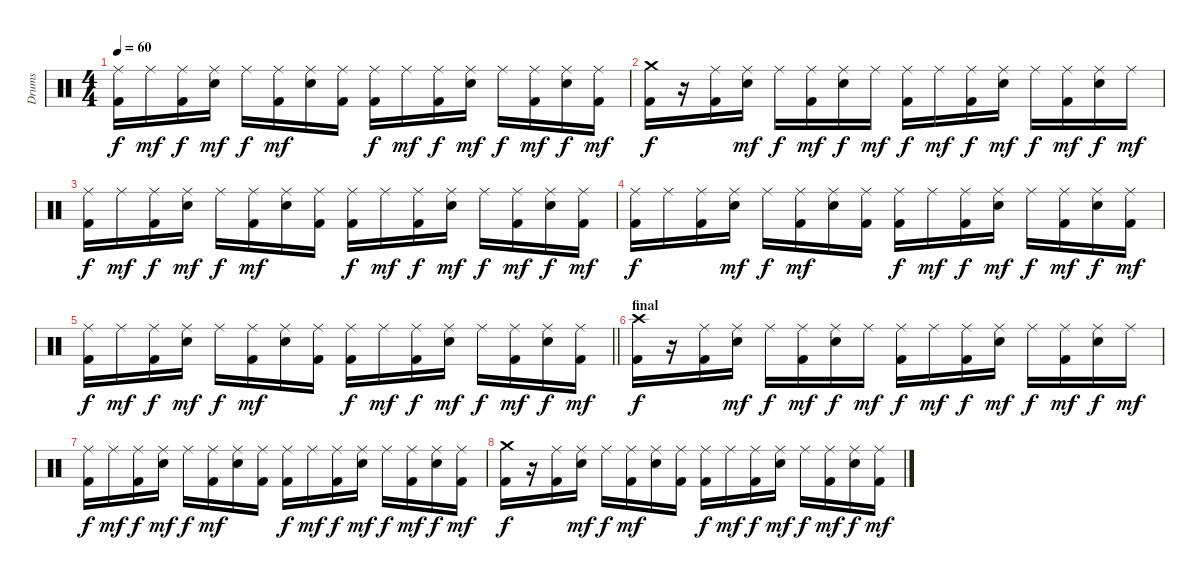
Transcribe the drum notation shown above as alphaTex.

\track ("Drums" "Drums") {instrument percussion}
\staff {score}
\articulation defaults
\ts (4 4)
\tempo 60
\clef neutral
\ks c
("Ride (middle)" "Kick (hit) 2").16{dy f} "Ride (middle)".16{dy mf} ("Ride (middle)" "Kick (hit) 2").16{dy f} ("Ride (middle)" "Snare (hit) 2").16{dy mf} "Ride (middle)".16{dy f} ("Ride (middle)" "Kick (hit) 2").16{dy mf} ("Ride (middle)" "Snare (hit) 2").16 ("Ride (middle)" "Kick (hit) 2").16 ("Ride (middle)" "Kick (hit) 2").16{dy f} "Ride (middle)".16{dy mf} ("Ride (middle)" "Kick (hit) 2").16{dy f} ("Ride (middle)" "Snare (hit) 2").16{dy mf} "Ride (middle)".16{dy f} ("Ride (middle)" "Kick (hit) 2").16{dy mf} ("Ride (middle)" "Snare (hit) 2").16{dy f} ("Ride (middle)" "Kick (hit) 2").16{dy mf} |
("Crash medium (hit)" "Kick (hit) 2").16{dy f} r.16 ("Ride (middle)" "Kick (hit) 2").16 ("Ride (middle)" "Snare (hit) 2").16{dy mf} "Ride (middle)".16{dy f} ("Ride (middle)" "Kick (hit) 2").16{dy mf} ("Ride (middle)" "Snare (hit) 2").16{dy f} "Ride (middle)".16{dy mf} ("Ride (middle)" "Kick (hit) 2").16{dy f} "Ride (middle)".16{dy mf} ("Ride (middle)" "Kick (hit) 2").16{dy f} ("Ride (middle)" "Snare (hit) 2").16{dy mf} "Ride (middle)".16{dy f} ("Ride (middle)" "Kick (hit) 2").16{dy mf} ("Ride (middle)" "Snare (hit) 2").16{dy f} "Ride (middle)".16{dy mf} |
("Ride (middle)" "Kick (hit) 2").16{dy f} "Ride (middle)".16{dy mf} ("Ride (middle)" "Kick (hit) 2").16{dy f} ("Ride (middle)" "Snare (hit) 2").16{dy mf} "Ride (middle)".16{dy f} ("Ride (middle)" "Kick (hit) 2").16{dy mf} ("Ride (middle)" "Snare (hit) 2").16 ("Ride (middle)" "Kick (hit) 2").16 ("Ride (middle)" "Kick (hit) 2").16{dy f} "Ride (middle)".16{dy mf} ("Ride (middle)" "Kick (hit) 2").16{dy f} ("Ride (middle)" "Snare (hit) 2").16{dy mf} "Ride (middle)".16{dy f} ("Ride (middle)" "Kick (hit) 2").16{dy mf} ("Ride (middle)" "Snare (hit) 2").16{dy f} ("Ride (middle)" "Kick (hit) 2").16{dy mf} |
("Ride (middle)" "Kick (hit) 2").16{dy f} "Ride (middle)".16 ("Ride (middle)" "Kick (hit) 2").16 ("Ride (middle)" "Snare (hit) 2").16{dy mf} "Ride (middle)".16{dy f} ("Ride (middle)" "Kick (hit) 2").16{dy mf} ("Ride (middle)" "Snare (hit) 2").16 ("Ride (middle)" "Kick (hit) 2").16 ("Ride (middle)" "Kick (hit) 2").16{dy f} "Ride (middle)".16{dy mf} ("Ride (middle)" "Kick (hit) 2").16{dy f} ("Ride (middle)" "Snare (hit) 2").16{dy mf} "Ride (middle)".16{dy f} ("Ride (middle)" "Kick (hit) 2").16{dy mf} ("Ride (middle)" "Snare (hit) 2").16{dy f} ("Ride (middle)" "Kick (hit) 2").16{dy mf} |
\barLineRight lightlight
("Ride (middle)" "Kick (hit) 2").16{dy f} "Ride (middle)".16{dy mf} ("Ride (middle)" "Kick (hit) 2").16{dy f} ("Ride (middle)" "Snare (hit) 2").16{dy mf} "Ride (middle)".16{dy f} ("Ride (middle)" "Kick (hit) 2").16{dy mf} ("Ride (middle)" "Snare (hit) 2").16 ("Ride (middle)" "Kick (hit) 2").16 ("Ride (middle)" "Kick (hit) 2").16{dy f} "Ride (middle)".16{dy mf} ("Ride (middle)" "Kick (hit) 2").16{dy f} ("Ride (middle)" "Snare (hit) 2").16{dy mf} "Ride (middle)".16{dy f} ("Ride (middle)" "Kick (hit) 2").16{dy mf} ("Ride (middle)" "Snare (hit) 2").16{dy f} ("Ride (middle)" "Kick (hit) 2").16{dy mf} |
\section ("" "final")
("Crash high (hit)" "Kick (hit) 2").16{dy f volume 0} r.16 ("Ride (middle)" "Kick (hit) 2").16 ("Ride (middle)" "Snare (hit) 2").16{dy mf} "Ride (middle)".16{dy f} ("Ride (middle)" "Kick (hit) 2").16{dy mf} ("Ride (middle)" "Snare (hit) 2").16{dy f} "Ride (middle)".16{dy mf} ("Ride (middle)" "Kick (hit) 2").16{dy f} "Ride (middle)".16{dy mf} ("Ride (middle)" "Kick (hit) 2").16{dy f} ("Ride (middle)" "Snare (hit) 2").16{dy mf} "Ride (middle)".16{dy f} ("Ride (middle)" "Kick (hit) 2").16{dy mf} ("Ride (middle)" "Snare (hit) 2").16{dy f} "Ride (middle)".16{dy mf} |
("Ride (middle)" "Kick (hit) 2").16{dy f} "Ride (middle)".16{dy mf} ("Ride (middle)" "Kick (hit) 2").16{dy f} ("Ride (middle)" "Snare (hit) 2").16{dy mf} "Ride (middle)".16{dy f} ("Ride (middle)" "Kick (hit) 2").16{dy mf} ("Ride (middle)" "Snare (hit) 2").16 ("Ride (middle)" "Kick (hit) 2").16 ("Ride (middle)" "Kick (hit) 2").16{dy f} "Ride (middle)".16{dy mf} ("Ride (middle)" "Kick (hit) 2").16{dy f} ("Ride (middle)" "Snare (hit) 2").16{dy mf} "Ride (middle)".16{dy f} ("Ride (middle)" "Kick (hit) 2").16{dy mf} ("Ride (middle)" "Snare (hit) 2").16{dy f} ("Ride (middle)" "Kick (hit) 2").16{dy mf} |
("Crash medium (hit)" "Kick (hit) 2").16{dy f} r.16 ("Ride (middle)" "Kick (hit) 2").16 ("Ride (middle)" "Snare (hit) 2").16{dy mf} "Ride (middle)".16{dy f} ("Ride (middle)" "Kick (hit) 2").16{dy mf} ("Ride (middle)" "Snare (hit) 2").16 ("Ride (middle)" "Kick (hit) 2").16 ("Ride (middle)" "Kick (hit) 2").16{dy f} "Ride (middle)".16{dy mf} ("Ride (middle)" "Kick (hit) 2").16{dy f} ("Ride (middle)" "Snare (hit) 2").16{dy mf} "Ride (middle)".16{dy f} ("Ride (middle)" "Kick (hit) 2").16{dy mf} ("Ride (middle)" "Snare (hit) 2").16{dy f} ("Ride (middle)" "Kick (hit) 2").16{dy mf}
